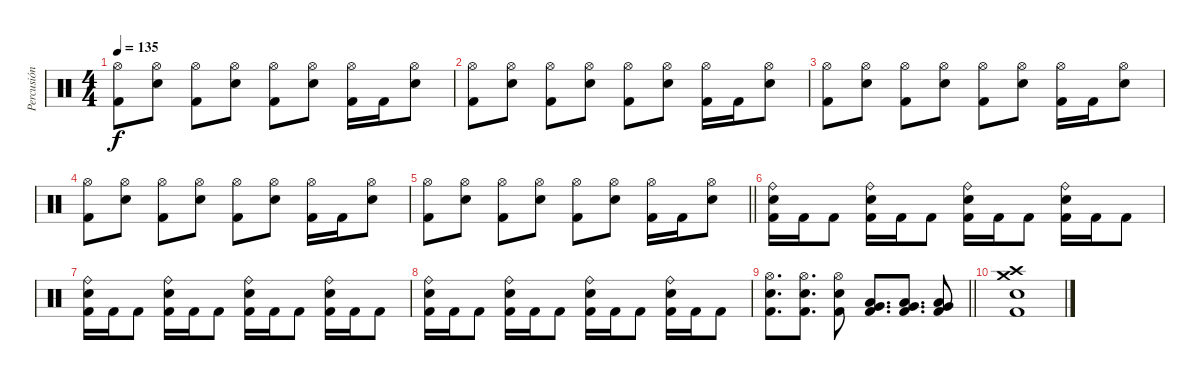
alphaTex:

\track ("Percusión" "Percusión") {instrument percussion}
\staff {score}
\articulation defaults
\ts (4 4)
\tempo 135
\clef neutral
\ks c
("Hi-Hat (open)" "Kick (hit) 2").8{dy f} ("Hi-Hat (open)" "Electric Snare (hit)").8 ("Hi-Hat (open)" "Kick (hit) 2").8 ("Hi-Hat (open)" "Electric Snare (hit)").8 ("Hi-Hat (open)" "Kick (hit) 2").8 ("Hi-Hat (open)" "Electric Snare (hit)").8 ("Hi-Hat (open)" "Kick (hit) 2").16 "Kick (hit) 2".16 ("Hi-Hat (open)" "Electric Snare (hit)").8 |
("Hi-Hat (open)" "Kick (hit) 2").8 ("Hi-Hat (open)" "Electric Snare (hit)").8 ("Hi-Hat (open)" "Kick (hit) 2").8 ("Hi-Hat (open)" "Electric Snare (hit)").8 ("Hi-Hat (open)" "Kick (hit) 2").8 ("Hi-Hat (open)" "Electric Snare (hit)").8 ("Hi-Hat (open)" "Kick (hit) 2").16 "Kick (hit) 2".16 ("Hi-Hat (open)" "Electric Snare (hit)").8 |
("Hi-Hat (open)" "Kick (hit) 2").8 ("Hi-Hat (open)" "Electric Snare (hit)").8 ("Hi-Hat (open)" "Kick (hit) 2").8 ("Hi-Hat (open)" "Electric Snare (hit)").8 ("Hi-Hat (open)" "Kick (hit) 2").8 ("Hi-Hat (open)" "Electric Snare (hit)").8 ("Hi-Hat (open)" "Kick (hit) 2").16 "Kick (hit) 2".16 ("Hi-Hat (open)" "Electric Snare (hit)").8 |
("Hi-Hat (open)" "Kick (hit) 2").8 ("Hi-Hat (open)" "Electric Snare (hit)").8 ("Hi-Hat (open)" "Kick (hit) 2").8 ("Hi-Hat (open)" "Electric Snare (hit)").8 ("Hi-Hat (open)" "Kick (hit) 2").8 ("Hi-Hat (open)" "Electric Snare (hit)").8 ("Hi-Hat (open)" "Kick (hit) 2").16 "Kick (hit) 2".16 ("Hi-Hat (open)" "Electric Snare (hit)").8 |
\barLineRight lightlight
("Hi-Hat (open)" "Kick (hit) 2").8 ("Hi-Hat (open)" "Electric Snare (hit)").8 ("Hi-Hat (open)" "Kick (hit) 2").8 ("Hi-Hat (open)" "Electric Snare (hit)").8 ("Hi-Hat (open)" "Kick (hit) 2").8 ("Hi-Hat (open)" "Electric Snare (hit)").8 ("Hi-Hat (open)" "Kick (hit) 2").16 "Kick (hit) 2".16 ("Hi-Hat (open)" "Electric Snare (hit)").8 |
("Ride (bell)" "Electric Snare (hit)" "Kick (hit) 2").16 "Kick (hit) 2".16 "Kick (hit) 2".8 ("Ride (bell)" "Electric Snare (hit)" "Kick (hit) 2").16 "Kick (hit) 2".16 "Kick (hit) 2".8 ("Ride (bell)" "Electric Snare (hit)" "Kick (hit) 2").16 "Kick (hit) 2".16 "Kick (hit) 2".8 ("Ride (bell)" "Electric Snare (hit)" "Kick (hit) 2").16 "Kick (hit) 2".16 "Kick (hit) 2".8 |
("Ride (bell)" "Electric Snare (hit)" "Kick (hit) 2").16 "Kick (hit) 2".16 "Kick (hit) 2".8 ("Ride (bell)" "Electric Snare (hit)" "Kick (hit) 2").16 "Kick (hit) 2".16 "Kick (hit) 2".8 ("Ride (bell)" "Electric Snare (hit)" "Kick (hit) 2").16 "Kick (hit) 2".16 "Kick (hit) 2".8 ("Ride (bell)" "Electric Snare (hit)" "Kick (hit) 2").16 "Kick (hit) 2".16 "Kick (hit) 2".8 |
("Ride (bell)" "Electric Snare (hit)" "Kick (hit) 2").16 "Kick (hit) 2".16 "Kick (hit) 2".8 ("Ride (bell)" "Electric Snare (hit)" "Kick (hit) 2").16 "Kick (hit) 2".16 "Kick (hit) 2".8 ("Ride (bell)" "Electric Snare (hit)" "Kick (hit) 2").16 "Kick (hit) 2".16 "Kick (hit) 2".8 ("Ride (bell)" "Electric Snare (hit)" "Kick (hit) 2").16 "Kick (hit) 2".16 "Kick (hit) 2".8 |
\barLineRight lightlight
("Hi-Hat (open)" "Electric Snare (hit)" "Kick (hit) 2").8{d} ("Hi-Hat (open)" "Electric Snare (hit)" "Kick (hit) 2").8{d} ("Hi-Hat (open)" "Electric Snare (hit)" "Kick (hit) 2").8 ("Very Low Tom (hit)" "Low Tom (hit)" "Kick (hit) 2").8{d} ("Very Low Tom (hit)" "Low Tom (hit)" "Kick (hit) 2").8{d} ("Very Low Tom (hit)" "Low Tom (hit)" "Kick (hit) 2").8 |
("Crash high (hit)" "Crash medium (hit)" "Electric Snare (hit)" "Kick (hit) 2").1
